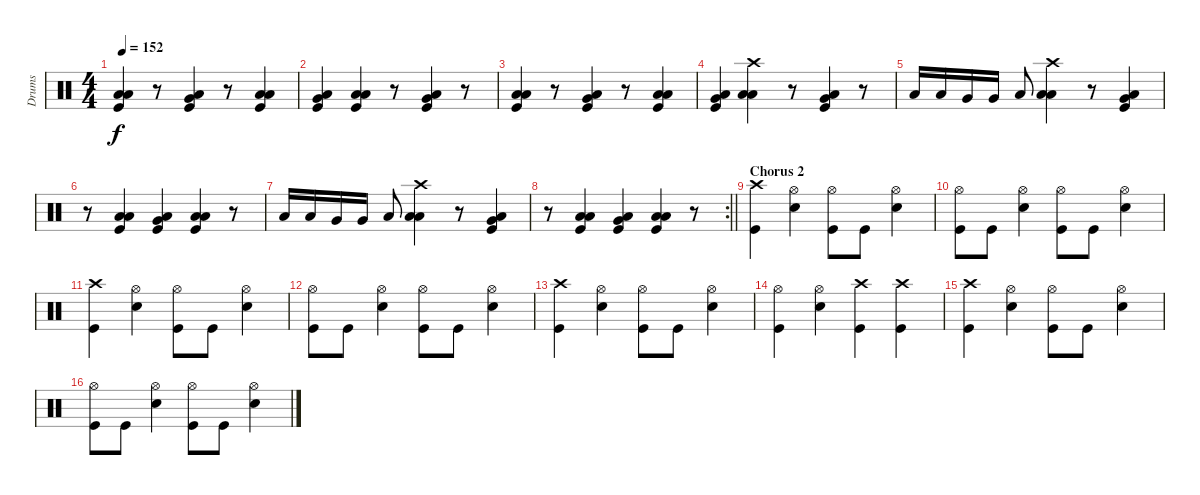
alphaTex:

\track ("Drums" "Drums") {instrument percussion}
\staff {score}
\articulation defaults
\ts (4 4)
\tempo 152
\clef neutral
\ks c
("Low Tom (hit)" "Kick (hit)" "Low Floor Tom (hit)").4{dy f} r.8 ("Kick (hit)" "Very Low Tom (hit)" "Low Floor Tom (hit)").4 r.8 ("Low Tom (hit)" "Kick (hit)" "Low Floor Tom (hit)").4 |
("Kick (hit)" "Very Low Tom (hit)" "Low Floor Tom (hit)").4 ("Low Tom (hit)" "Kick (hit)" "Low Floor Tom (hit)").4 r.8 ("Kick (hit)" "Very Low Tom (hit)" "Low Floor Tom (hit)").4 r.8 |
("Low Tom (hit)" "Kick (hit)" "Low Floor Tom (hit)").4 r.8 ("Kick (hit)" "Very Low Tom (hit)" "Low Floor Tom (hit)").4 r.8 ("Low Tom (hit)" "Kick (hit)" "Low Floor Tom (hit)").4 |
("Kick (hit)" "Very Low Tom (hit)" "Low Floor Tom (hit)").4 ("Low Tom (hit)" "Low Floor Tom (hit)" "Crash high (hit)").4 r.8 ("Kick (hit)" "Very Low Tom (hit)" "Low Floor Tom (hit)").4 r.8 |
"Low Tom (hit)".16 "Low Tom (hit)".16 "Very Low Tom (hit)".16 "Very Low Tom (hit)".16 "Low Floor Tom (hit)".8 ("Low Tom (hit)" "Low Floor Tom (hit)" "Crash high (hit)").4 r.8 ("Kick (hit)" "Very Low Tom (hit)" "Low Floor Tom (hit)").4 |
r.8 ("Low Tom (hit)" "Kick (hit)" "Low Floor Tom (hit)").4 ("Kick (hit)" "Very Low Tom (hit)" "Low Floor Tom (hit)").4 ("Low Tom (hit)" "Kick (hit)" "Low Floor Tom (hit)").4 r.8 |
"Low Tom (hit)".16 "Low Tom (hit)".16 "Very Low Tom (hit)".16 "Very Low Tom (hit)".16 "Low Floor Tom (hit)".8 ("Low Tom (hit)" "Low Floor Tom (hit)" "Crash high (hit)").4 r.8 ("Kick (hit)" "Very Low Tom (hit)" "Low Floor Tom (hit)").4 |
\rc 2
\barLineRight lightlight
r.8 ("Low Tom (hit)" "Kick (hit)" "Low Floor Tom (hit)").4 ("Kick (hit)" "Very Low Tom (hit)" "Low Floor Tom (hit)").4 ("Low Tom (hit)" "Kick (hit)" "Low Floor Tom (hit)").4 r.8 |
\section ("" "Chorus 2")
("Kick (hit)" "Crash high (hit)").4 ("Hi-Hat (open)" "Snare (hit) 2").4 ("Hi-Hat (open)" "Kick (hit)").8 "Kick (hit)".8 ("Hi-Hat (open)" "Snare (hit) 2").4 |
("Hi-Hat (open)" "Kick (hit)").8 "Kick (hit)".8 ("Hi-Hat (open)" "Snare (hit) 2").4 ("Hi-Hat (open)" "Kick (hit)").8 "Kick (hit)".8 ("Hi-Hat (open)" "Snare (hit) 2").4 |
("Kick (hit)" "Crash high (hit)").4 ("Hi-Hat (open)" "Snare (hit) 2").4 ("Hi-Hat (open)" "Kick (hit)").8 "Kick (hit)".8 ("Hi-Hat (open)" "Snare (hit) 2").4 |
("Hi-Hat (open)" "Kick (hit)").8 "Kick (hit)".8 ("Hi-Hat (open)" "Snare (hit) 2").4 ("Hi-Hat (open)" "Kick (hit)").8 "Kick (hit)".8 ("Hi-Hat (open)" "Snare (hit) 2").4 |
("Kick (hit)" "Crash high (hit)").4 ("Hi-Hat (open)" "Snare (hit) 2").4 ("Hi-Hat (open)" "Kick (hit)").8 "Kick (hit)".8 ("Hi-Hat (open)" "Snare (hit) 2").4 |
("Kick (hit)" "Hi-Hat (open)").4 ("Hi-Hat (open)" "Snare (hit) 2").4 ("Kick (hit)" "Crash high (hit)").4 ("Kick (hit)" "Crash high (hit)").4 |
("Kick (hit)" "Crash high (hit)").4 ("Hi-Hat (open)" "Snare (hit) 2").4 ("Hi-Hat (open)" "Kick (hit)").8 "Kick (hit)".8 ("Hi-Hat (open)" "Snare (hit) 2").4 |
("Hi-Hat (open)" "Kick (hit)").8 "Kick (hit)".8 ("Hi-Hat (open)" "Snare (hit) 2").4 ("Hi-Hat (open)" "Kick (hit)").8 "Kick (hit)".8 ("Hi-Hat (open)" "Snare (hit) 2").4
